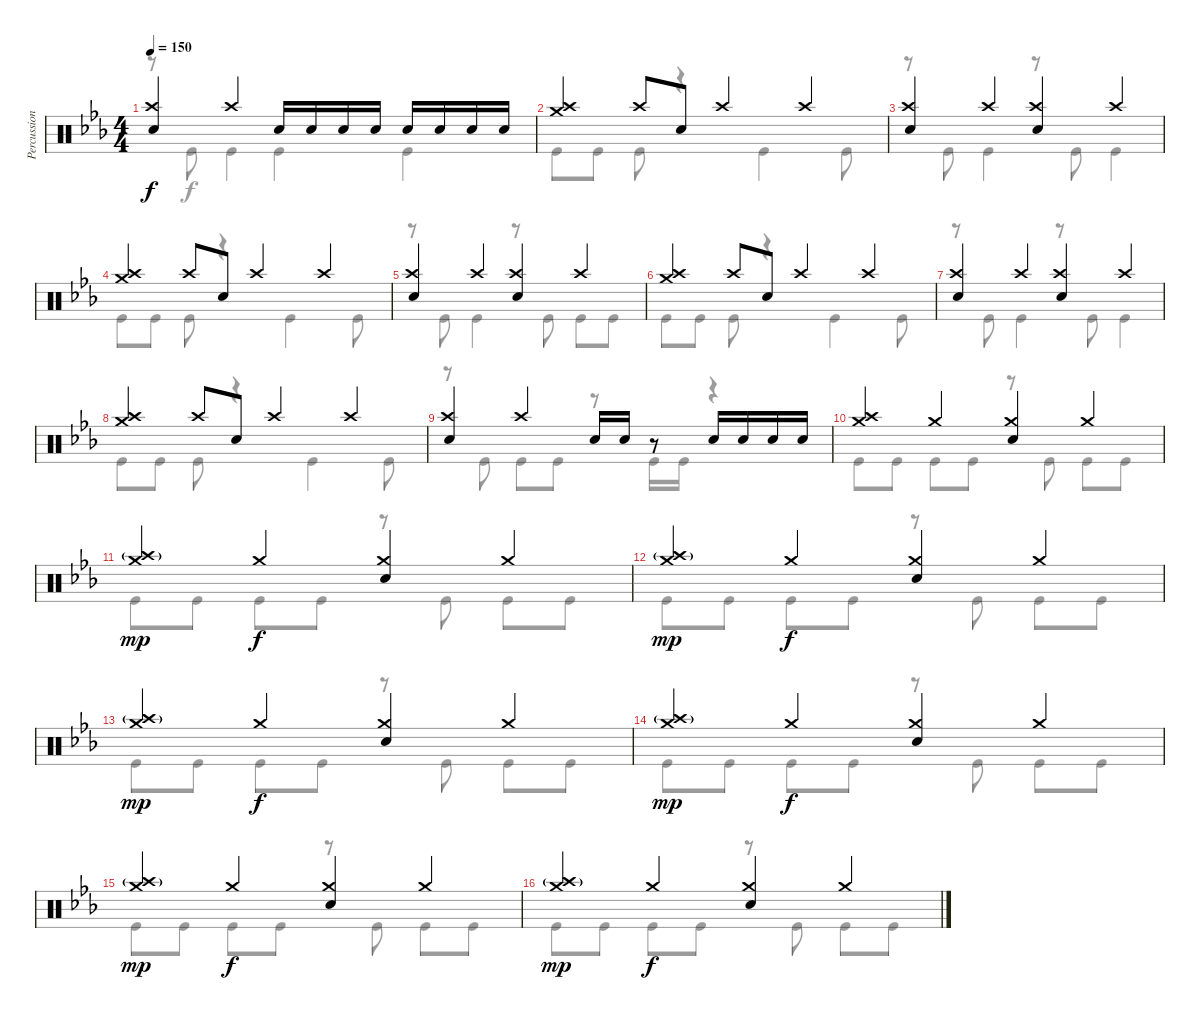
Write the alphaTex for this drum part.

\track ("Percussion" "Percussion") {instrument percussion}
\staff {score}
\articulation defaults
\voice
\ts (4 4)
\tempo 150
\clef neutral
\ks cminor
("Crash high (hit)" "Electric Snare (hit)").4{dy f} "Crash high (hit)".4 "Electric Snare (hit)".16 "Electric Snare (hit)".16 "Electric Snare (hit)".16 "Electric Snare (hit)".16 "Electric Snare (hit)".16 "Electric Snare (hit)".16 "Electric Snare (hit)".16 "Electric Snare (hit)".16 |
("Crash medium (hit)" "Crash high (hit)").4 "Crash high (hit)".8 "Electric Snare (hit)".8 "Crash high (hit)".4 "Crash high (hit)".4 |
("Crash high (hit)" "Electric Snare (hit)").4 "Crash high (hit)".4 ("Crash high (hit)" "Electric Snare (hit)").4 "Crash high (hit)".4 |
("Crash medium (hit)" "Crash high (hit)").4 "Crash high (hit)".8 "Electric Snare (hit)".8 "Crash high (hit)".4 "Crash high (hit)".4 |
("Crash high (hit)" "Electric Snare (hit)").4 "Crash high (hit)".4 ("Crash high (hit)" "Electric Snare (hit)").4 "Crash high (hit)".4 |
("Crash medium (hit)" "Crash high (hit)").4 "Crash high (hit)".8 "Electric Snare (hit)".8 "Crash high (hit)".4 "Crash high (hit)".4 |
("Crash high (hit)" "Electric Snare (hit)").4 "Crash high (hit)".4 ("Crash high (hit)" "Electric Snare (hit)").4 "Crash high (hit)".4 |
("Crash medium (hit)" "Crash high (hit)").4 "Crash high (hit)".8 "Electric Snare (hit)".8 "Crash high (hit)".4 "Crash high (hit)".4 |
("Crash high (hit)" "Electric Snare (hit)").4 "Crash high (hit)".4 "Electric Snare (hit)".16 "Electric Snare (hit)".16 r.8 "Electric Snare (hit)".16 "Electric Snare (hit)".16 "Electric Snare (hit)".16 "Electric Snare (hit)".16 |
("Crash medium (hit)" "Crash high (hit)").4 "Crash medium (hit)".4 ("Crash medium (hit)" "Electric Snare (hit)").4 "Crash medium (hit)".4 |
("Crash medium (hit)" "Crash high (hit)"{g}).4{dy mp} "Crash medium (hit)".4{dy f} ("Crash medium (hit)" "Electric Snare (hit)").4 "Crash medium (hit)".4 |
("Crash medium (hit)" "Crash high (hit)"{g}).4{dy mp} "Crash medium (hit)".4{dy f} ("Crash medium (hit)" "Electric Snare (hit)").4 "Crash medium (hit)".4 |
("Crash medium (hit)" "Crash high (hit)"{g}).4{dy mp} "Crash medium (hit)".4{dy f} ("Crash medium (hit)" "Electric Snare (hit)").4 "Crash medium (hit)".4 |
("Crash medium (hit)" "Crash high (hit)"{g}).4{dy mp} "Crash medium (hit)".4{dy f} ("Crash medium (hit)" "Electric Snare (hit)").4 "Crash medium (hit)".4 |
("Crash medium (hit)" "Crash high (hit)"{g}).4{dy mp} "Crash medium (hit)".4{dy f} ("Crash medium (hit)" "Electric Snare (hit)").4 "Crash medium (hit)".4 |
("Crash medium (hit)" "Crash high (hit)"{g}).4{dy mp} "Crash medium (hit)".4{dy f} ("Crash medium (hit)" "Electric Snare (hit)").4 "Crash medium (hit)".4
\voice
\clef neutral
\ottava regular
\simile none
\ks cminor
r.8{dy f} "Kick (hit)".8 "Kick (hit)".4 "Kick (hit)".4 "Kick (hit)".4 |
"Kick (hit)".8 "Kick (hit)".8 "Kick (hit)".8 r.4 "Kick (hit)".4 "Kick (hit)".8 |
r.8 "Kick (hit)".8 "Kick (hit)".4 r.8 "Kick (hit)".8 "Kick (hit)".4 |
"Kick (hit)".8 "Kick (hit)".8 "Kick (hit)".8 r.4 "Kick (hit)".4 "Kick (hit)".8 |
r.8 "Kick (hit)".8 "Kick (hit)".4 r.8 "Kick (hit)".8 "Kick (hit)".8 "Kick (hit)".8 |
"Kick (hit)".8 "Kick (hit)".8 "Kick (hit)".8 r.4 "Kick (hit)".4 "Kick (hit)".8 |
r.8 "Kick (hit)".8 "Kick (hit)".4 r.8 "Kick (hit)".8 "Kick (hit)".4 |
"Kick (hit)".8 "Kick (hit)".8 "Kick (hit)".8 r.4 "Kick (hit)".4 "Kick (hit)".8 |
r.8 "Kick (hit)".8 "Kick (hit)".8 "Kick (hit)".8 r.8 "Kick (hit)".16 "Kick (hit)".16 r.4 |
"Kick (hit)".8 "Kick (hit)".8 "Kick (hit)".8 "Kick (hit)".8 r.8 "Kick (hit)".8 "Kick (hit)".8 "Kick (hit)".8 |
"Kick (hit)".8 "Kick (hit)".8 "Kick (hit)".8 "Kick (hit)".8 r.8 "Kick (hit)".8 "Kick (hit)".8 "Kick (hit)".8 |
"Kick (hit)".8 "Kick (hit)".8 "Kick (hit)".8 "Kick (hit)".8 r.8 "Kick (hit)".8 "Kick (hit)".8 "Kick (hit)".8 |
"Kick (hit)".8 "Kick (hit)".8 "Kick (hit)".8 "Kick (hit)".8 r.8 "Kick (hit)".8 "Kick (hit)".8 "Kick (hit)".8 |
"Kick (hit)".8 "Kick (hit)".8 "Kick (hit)".8 "Kick (hit)".8 r.8 "Kick (hit)".8 "Kick (hit)".8 "Kick (hit)".8 |
"Kick (hit)".8 "Kick (hit)".8 "Kick (hit)".8 "Kick (hit)".8 r.8 "Kick (hit)".8 "Kick (hit)".8 "Kick (hit)".8 |
"Kick (hit)".8 "Kick (hit)".8 "Kick (hit)".8 "Kick (hit)".8 r.8 "Kick (hit)".8 "Kick (hit)".8 "Kick (hit)".8
